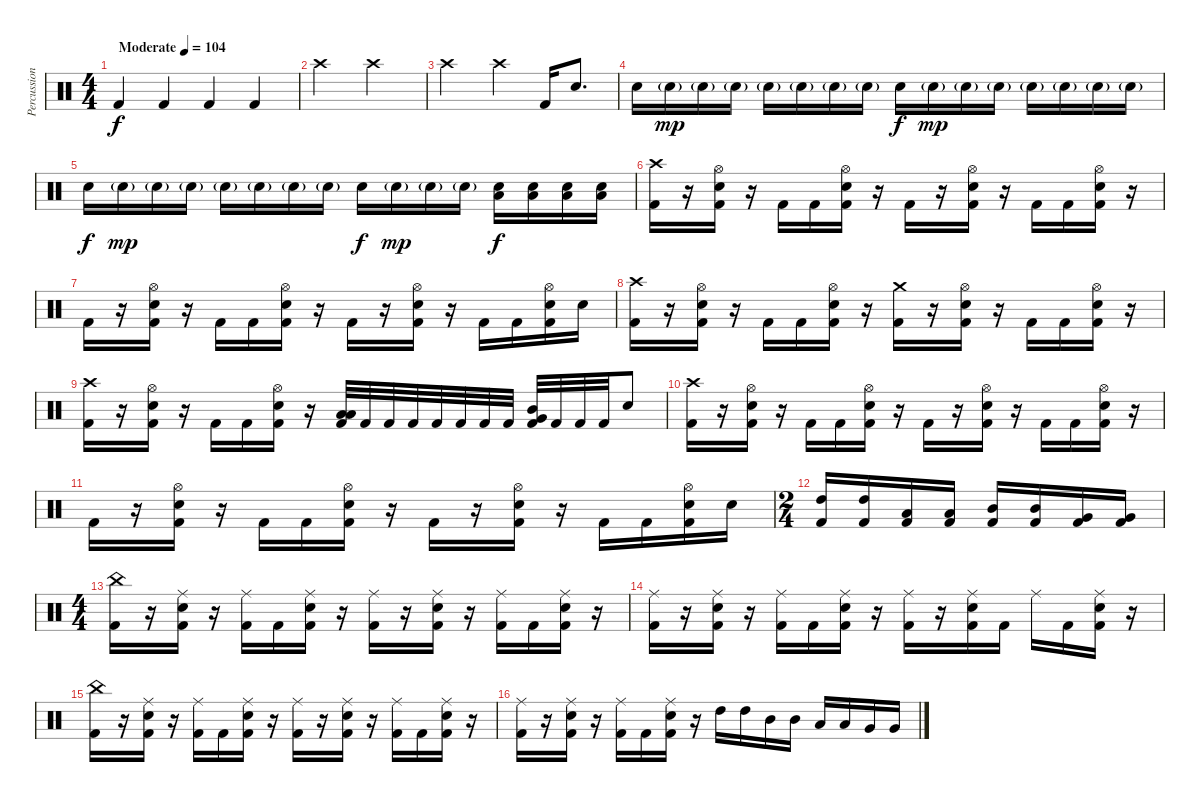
\track ("Percussion" "Percussion") {instrument percussion}
\staff {score}
\articulation defaults
\ts (4 4)
\tempo (104 "Moderate")
\clef neutral
\ks c "Kick (hit) 2".4{dy f} "Kick (hit) 2".4 "Kick (hit) 2".4 "Kick (hit) 2".4
|
"Crash high (hit)".2 "Crash high (hit)".2 |
"Crash high (hit)".2 "Crash high (hit)".4 "Kick (hit) 2".16 "Snare (hit) 2".8{d} |
"Snare (hit) 2".16 "Snare (hit) 2"{g}.16{dy mp} "Snare (hit) 2"{g}.16 "Snare (hit) 2"{g}.16 "Snare (hit) 2"{g}.16 "Snare (hit) 2"{g}.16 "Snare (hit) 2"{g}.16 "Snare (hit) 2"{g}.16 "Snare (hit) 2".16{dy f} "Snare (hit) 2"{g}.16{dy mp} "Snare (hit) 2"{g}.16 "Snare (hit) 2"{g}.16 "Snare (hit) 2"{g}.16 "Snare (hit) 2"{g}.16 "Snare (hit) 2"{g}.16 "Snare (hit) 2"{g}.16 |
"Snare (hit) 2".16{dy f} "Snare (hit) 2"{g}.16{dy mp} "Snare (hit) 2"{g}.16 "Snare (hit) 2"{g}.16 "Snare (hit) 2"{g}.16 "Snare (hit) 2"{g}.16 "Snare (hit) 2"{g}.16 "Snare (hit) 2"{g}.16 "Snare (hit) 2".16{dy f} "Snare (hit) 2"{g}.16{dy mp} "Snare (hit) 2"{g}.16 "Snare (hit) 2"{g}.16 ("Low Tom (hit)" "Snare (hit) 2").16{dy f} ("Low Tom (hit)" "Snare (hit) 2").16 ("Low Tom (hit)" "Snare (hit) 2").16 ("Low Tom (hit)" "Snare (hit) 2").16 |
("Crash high (hit)" "Kick (hit) 2").16 r.16 ("Hi-Hat (open)" "Snare (hit) 2" "Kick (hit) 2").16 r.16 "Kick (hit) 2".16 "Kick (hit) 2".16 ("Hi-Hat (open)" "Snare (hit) 2" "Kick (hit) 2").16 r.16 "Kick (hit) 2".16 r.16 ("Hi-Hat (open)" "Snare (hit) 2" "Kick (hit) 2").16 r.16 "Kick (hit) 2".16 "Kick (hit) 2".16 ("Hi-Hat (open)" "Snare (hit) 2" "Kick (hit) 2").16 r.16 |
"Kick (hit) 2".16 r.16 ("Hi-Hat (open)" "Snare (hit) 2" "Kick (hit) 2").16 r.16 "Kick (hit) 2".16 "Kick (hit) 2".16 ("Hi-Hat (open)" "Snare (hit) 2" "Kick (hit) 2").16 r.16 "Kick (hit) 2".16 r.16 ("Hi-Hat (open)" "Snare (hit) 2" "Kick (hit) 2").16 r.16 "Kick (hit) 2".16 "Kick (hit) 2".16 ("Hi-Hat (open)" "Snare (hit) 2" "Kick (hit) 2").16 "Snare (hit) 2".16 |
("Crash high (hit)" "Kick (hit) 2").16 r.16 ("Hi-Hat (open)" "Snare (hit) 2" "Kick (hit) 2").16 r.16 "Kick (hit) 2".16 "Kick (hit) 2".16 ("Hi-Hat (open)" "Snare (hit) 2" "Kick (hit) 2").16 r.16 ("Crash medium (hit)" "Kick (hit) 2").16 r.16 ("Hi-Hat (open)" "Snare (hit) 2" "Kick (hit) 2").16 r.16 "Kick (hit) 2".16 "Kick (hit) 2".16 ("Hi-Hat (open)" "Snare (hit) 2" "Kick (hit) 2").16 r.16 |
("Crash high (hit)" "Kick (hit) 2").16 r.16 ("Hi-Hat (open)" "Snare (hit) 2" "Kick (hit) 2").16 r.16 "Kick (hit) 2".16 "Kick (hit) 2".16 ("Hi-Hat (open)" "Snare (hit) 2" "Kick (hit) 2").16 r.16 ("Low Tom (hit)" "Low Floor Tom (hit)" "Kick (hit) 2").32 "Kick (hit) 2".32 "Kick (hit) 2".32 "Kick (hit) 2".32 "Kick (hit) 2".32 "Kick (hit) 2".32 "Kick (hit) 2".32 "Kick (hit) 2".32 ("Mid Tom (hit)" "Very Low Tom (hit)" "Kick (hit) 2").32 "Kick (hit) 2".32 "Kick (hit) 2".32 "Kick (hit) 2".32 "Snare (hit) 2".8 |
("Crash high (hit)" "Kick (hit) 2").16 r.16 ("Hi-Hat (open)" "Snare (hit) 2" "Kick (hit) 2").16 r.16 "Kick (hit) 2".16 "Kick (hit) 2".16 ("Hi-Hat (open)" "Snare (hit) 2" "Kick (hit) 2").16 r.16 "Kick (hit) 2".16 r.16 ("Hi-Hat (open)" "Snare (hit) 2" "Kick (hit) 2").16 r.16 "Kick (hit) 2".16 "Kick (hit) 2".16 ("Hi-Hat (open)" "Snare (hit) 2" "Kick (hit) 2").16 r.16 |
"Kick (hit) 2".16 r.16 ("Hi-Hat (open)" "Snare (hit) 2" "Kick (hit) 2").16 r.16 "Kick (hit) 2".16 "Kick (hit) 2".16 ("Hi-Hat (open)" "Snare (hit) 2" "Kick (hit) 2").16 r.16 "Kick (hit) 2".16 r.16 ("Hi-Hat (open)" "Snare (hit) 2" "Kick (hit) 2").16 r.16 "Kick (hit) 2".16 "Kick (hit) 2".16 ("Hi-Hat (open)" "Snare (hit) 2" "Kick (hit) 2").16 "Snare (hit) 2".16 |
\ts (2 4)
("High Tom (hit)" "Kick (hit) 2").16 ("High Tom (hit)" "Kick (hit) 2").16 ("Low Floor Tom (hit)" "Kick (hit) 2").16 ("Low Floor Tom (hit)" "Kick (hit) 2").16 ("Mid Tom (hit)" "Kick (hit) 2").16 ("Mid Tom (hit)" "Kick (hit) 2").16 ("Very Low Tom (hit)" "Kick (hit) 2").16 ("Very Low Tom (hit)" "Kick (hit) 2").16 |
\ts (4 4)
("China (hit)" "Kick (hit) 2").16 r.16 ("Ride (middle)" "Snare (hit) 2" "Kick (hit) 2").16 r.16 ("Ride (middle)" "Kick (hit) 2").16 "Kick (hit) 2".16 ("Ride (middle)" "Snare (hit) 2" "Kick (hit) 2").16 r.16 ("Ride (middle)" "Kick (hit) 2").16 r.16 ("Ride (middle)" "Snare (hit) 2" "Kick (hit) 2").16 r.16 ("Ride (middle)" "Kick (hit) 2").16 "Kick (hit) 2".16 ("Ride (middle)" "Snare (hit) 2" "Kick (hit) 2").16 r.16 |
("Ride (middle)" "Kick (hit) 2").16 r.16 ("Ride (middle)" "Snare (hit) 2" "Kick (hit) 2").16 r.16 ("Ride (middle)" "Kick (hit) 2").16 "Kick (hit) 2".16 ("Ride (middle)" "Snare (hit) 2" "Kick (hit) 2").16 r.16 ("Ride (middle)" "Kick (hit) 2").16 r.16 ("Ride (middle)" "Snare (hit) 2" "Kick (hit) 2").16 "Kick (hit) 2".16 "Ride (middle)".16 "Kick (hit) 2".16 ("Ride (middle)" "Snare (hit) 2" "Kick (hit) 2").16 r.16 |
("China (hit)" "Kick (hit) 2").16 r.16 ("Ride (middle)" "Snare (hit) 2" "Kick (hit) 2").16 r.16 ("Ride (middle)" "Kick (hit) 2").16 "Kick (hit) 2".16 ("Ride (middle)" "Snare (hit) 2" "Kick (hit) 2").16 r.16 ("Ride (middle)" "Kick (hit) 2").16 r.16 ("Ride (middle)" "Snare (hit) 2" "Kick (hit) 2").16 r.16 ("Ride (middle)" "Kick (hit) 2").16 "Kick (hit) 2".16 ("Ride (middle)" "Snare (hit) 2" "Kick (hit) 2").16 r.16 |
("Ride (middle)" "Kick (hit) 2").16 r.16 ("Ride (middle)" "Snare (hit) 2" "Kick (hit) 2").16 r.16 ("Ride (middle)" "Kick (hit) 2").16 "Kick (hit) 2".16 ("Ride (middle)" "Snare (hit) 2" "Kick (hit) 2").16 r.16 "High Tom (hit)".16 "High Tom (hit)".16 "Mid Tom (hit)".16 "Mid Tom (hit)".16 "Low Tom (hit)".16 "Low Tom (hit)".16 "Very Low Tom (hit)".16 "Very Low Tom (hit)".16
